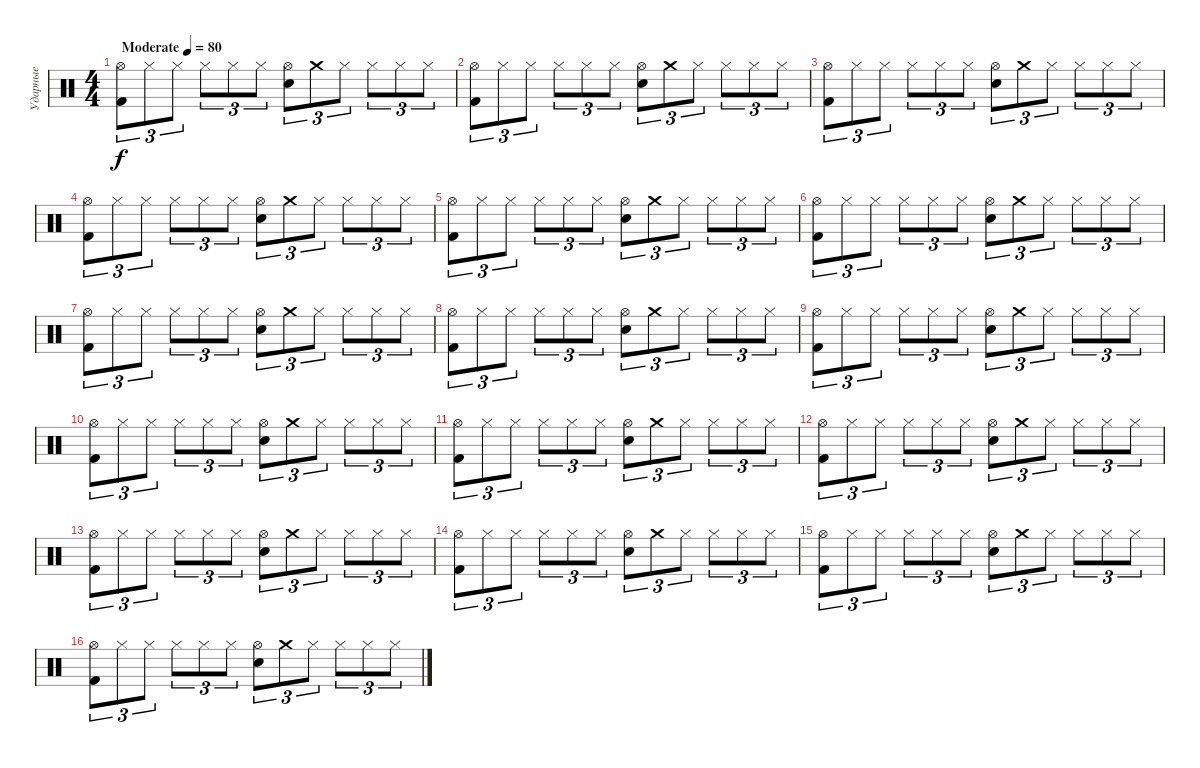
\track ("Ударные" "Ударные") {instrument percussion}
\staff {score}
\articulation defaults
\ts (4 4)
\tempo (80 "Moderate")
\clef neutral
\ks c
("Hi-Hat (open)" "Kick (hit) 2").8{tu (3 2) dy f} "Hi-Hat (closed)".8{tu (3 2)} "Hi-Hat (closed)".8{tu (3 2)} "Hi-Hat (closed)".8{tu (3 2)} "Hi-Hat (closed)".8{tu (3 2)} "Hi-Hat (closed)".8{tu (3 2)} ("Snare (hit) 2" "Hi-Hat (open)").8{tu (3 2)} "Crash medium (hit)".8{tu (3 2)} "Hi-Hat (closed)".8{tu (3 2)} "Hi-Hat (closed)".8{tu (3 2)} "Hi-Hat (closed)".8{tu (3 2)} "Hi-Hat (closed)".8{tu (3 2)} |
("Hi-Hat (open)" "Kick (hit) 2").8{tu (3 2)} "Hi-Hat (closed)".8{tu (3 2)} "Hi-Hat (closed)".8{tu (3 2)} "Hi-Hat (closed)".8{tu (3 2)} "Hi-Hat (closed)".8{tu (3 2)} "Hi-Hat (closed)".8{tu (3 2)} ("Snare (hit) 2" "Hi-Hat (open)").8{tu (3 2)} "Crash medium (hit)".8{tu (3 2)} "Hi-Hat (closed)".8{tu (3 2)} "Hi-Hat (closed)".8{tu (3 2)} "Hi-Hat (closed)".8{tu (3 2)} "Hi-Hat (closed)".8{tu (3 2)} |
("Hi-Hat (open)" "Kick (hit) 2").8{tu (3 2)} "Hi-Hat (closed)".8{tu (3 2)} "Hi-Hat (closed)".8{tu (3 2)} "Hi-Hat (closed)".8{tu (3 2)} "Hi-Hat (closed)".8{tu (3 2)} "Hi-Hat (closed)".8{tu (3 2)} ("Snare (hit) 2" "Hi-Hat (open)").8{tu (3 2)} "Crash medium (hit)".8{tu (3 2)} "Hi-Hat (closed)".8{tu (3 2)} "Hi-Hat (closed)".8{tu (3 2)} "Hi-Hat (closed)".8{tu (3 2)} "Hi-Hat (closed)".8{tu (3 2)} |
("Hi-Hat (open)" "Kick (hit) 2").8{tu (3 2)} "Hi-Hat (closed)".8{tu (3 2)} "Hi-Hat (closed)".8{tu (3 2)} "Hi-Hat (closed)".8{tu (3 2)} "Hi-Hat (closed)".8{tu (3 2)} "Hi-Hat (closed)".8{tu (3 2)} ("Snare (hit) 2" "Hi-Hat (open)").8{tu (3 2)} "Crash medium (hit)".8{tu (3 2)} "Hi-Hat (closed)".8{tu (3 2)} "Hi-Hat (closed)".8{tu (3 2)} "Hi-Hat (closed)".8{tu (3 2)} "Hi-Hat (closed)".8{tu (3 2)} |
("Hi-Hat (open)" "Kick (hit) 2").8{tu (3 2)} "Hi-Hat (closed)".8{tu (3 2)} "Hi-Hat (closed)".8{tu (3 2)} "Hi-Hat (closed)".8{tu (3 2)} "Hi-Hat (closed)".8{tu (3 2)} "Hi-Hat (closed)".8{tu (3 2)} ("Snare (hit) 2" "Hi-Hat (open)").8{tu (3 2)} "Crash medium (hit)".8{tu (3 2)} "Hi-Hat (closed)".8{tu (3 2)} "Hi-Hat (closed)".8{tu (3 2)} "Hi-Hat (closed)".8{tu (3 2)} "Hi-Hat (closed)".8{tu (3 2)} |
("Hi-Hat (open)" "Kick (hit) 2").8{tu (3 2)} "Hi-Hat (closed)".8{tu (3 2)} "Hi-Hat (closed)".8{tu (3 2)} "Hi-Hat (closed)".8{tu (3 2)} "Hi-Hat (closed)".8{tu (3 2)} "Hi-Hat (closed)".8{tu (3 2)} ("Snare (hit) 2" "Hi-Hat (open)").8{tu (3 2)} "Crash medium (hit)".8{tu (3 2)} "Hi-Hat (closed)".8{tu (3 2)} "Hi-Hat (closed)".8{tu (3 2)} "Hi-Hat (closed)".8{tu (3 2)} "Hi-Hat (closed)".8{tu (3 2)} |
("Hi-Hat (open)" "Kick (hit) 2").8{tu (3 2)} "Hi-Hat (closed)".8{tu (3 2)} "Hi-Hat (closed)".8{tu (3 2)} "Hi-Hat (closed)".8{tu (3 2)} "Hi-Hat (closed)".8{tu (3 2)} "Hi-Hat (closed)".8{tu (3 2)} ("Snare (hit) 2" "Hi-Hat (open)").8{tu (3 2)} "Crash medium (hit)".8{tu (3 2)} "Hi-Hat (closed)".8{tu (3 2)} "Hi-Hat (closed)".8{tu (3 2)} "Hi-Hat (closed)".8{tu (3 2)} "Hi-Hat (closed)".8{tu (3 2)} |
("Hi-Hat (open)" "Kick (hit) 2").8{tu (3 2)} "Hi-Hat (closed)".8{tu (3 2)} "Hi-Hat (closed)".8{tu (3 2)} "Hi-Hat (closed)".8{tu (3 2)} "Hi-Hat (closed)".8{tu (3 2)} "Hi-Hat (closed)".8{tu (3 2)} ("Snare (hit) 2" "Hi-Hat (open)").8{tu (3 2)} "Crash medium (hit)".8{tu (3 2)} "Hi-Hat (closed)".8{tu (3 2)} "Hi-Hat (closed)".8{tu (3 2)} "Hi-Hat (closed)".8{tu (3 2)} "Hi-Hat (closed)".8{tu (3 2)} |
("Hi-Hat (open)" "Kick (hit) 2").8{tu (3 2)} "Hi-Hat (closed)".8{tu (3 2)} "Hi-Hat (closed)".8{tu (3 2)} "Hi-Hat (closed)".8{tu (3 2)} "Hi-Hat (closed)".8{tu (3 2)} "Hi-Hat (closed)".8{tu (3 2)} ("Snare (hit) 2" "Hi-Hat (open)").8{tu (3 2)} "Crash medium (hit)".8{tu (3 2)} "Hi-Hat (closed)".8{tu (3 2)} "Hi-Hat (closed)".8{tu (3 2)} "Hi-Hat (closed)".8{tu (3 2)} "Hi-Hat (closed)".8{tu (3 2)} |
("Hi-Hat (open)" "Kick (hit) 2").8{tu (3 2)} "Hi-Hat (closed)".8{tu (3 2)} "Hi-Hat (closed)".8{tu (3 2)} "Hi-Hat (closed)".8{tu (3 2)} "Hi-Hat (closed)".8{tu (3 2)} "Hi-Hat (closed)".8{tu (3 2)} ("Snare (hit) 2" "Hi-Hat (open)").8{tu (3 2)} "Crash medium (hit)".8{tu (3 2)} "Hi-Hat (closed)".8{tu (3 2)} "Hi-Hat (closed)".8{tu (3 2)} "Hi-Hat (closed)".8{tu (3 2)} "Hi-Hat (closed)".8{tu (3 2)} |
("Hi-Hat (open)" "Kick (hit) 2").8{tu (3 2)} "Hi-Hat (closed)".8{tu (3 2)} "Hi-Hat (closed)".8{tu (3 2)} "Hi-Hat (closed)".8{tu (3 2)} "Hi-Hat (closed)".8{tu (3 2)} "Hi-Hat (closed)".8{tu (3 2)} ("Snare (hit) 2" "Hi-Hat (open)").8{tu (3 2)} "Crash medium (hit)".8{tu (3 2)} "Hi-Hat (closed)".8{tu (3 2)} "Hi-Hat (closed)".8{tu (3 2)} "Hi-Hat (closed)".8{tu (3 2)} "Hi-Hat (closed)".8{tu (3 2)} |
("Hi-Hat (open)" "Kick (hit) 2").8{tu (3 2)} "Hi-Hat (closed)".8{tu (3 2)} "Hi-Hat (closed)".8{tu (3 2)} "Hi-Hat (closed)".8{tu (3 2)} "Hi-Hat (closed)".8{tu (3 2)} "Hi-Hat (closed)".8{tu (3 2)} ("Snare (hit) 2" "Hi-Hat (open)").8{tu (3 2)} "Crash medium (hit)".8{tu (3 2)} "Hi-Hat (closed)".8{tu (3 2)} "Hi-Hat (closed)".8{tu (3 2)} "Hi-Hat (closed)".8{tu (3 2)} "Hi-Hat (closed)".8{tu (3 2)} |
("Hi-Hat (open)" "Kick (hit) 2").8{tu (3 2)} "Hi-Hat (closed)".8{tu (3 2)} "Hi-Hat (closed)".8{tu (3 2)} "Hi-Hat (closed)".8{tu (3 2)} "Hi-Hat (closed)".8{tu (3 2)} "Hi-Hat (closed)".8{tu (3 2)} ("Snare (hit) 2" "Hi-Hat (open)").8{tu (3 2)} "Crash medium (hit)".8{tu (3 2)} "Hi-Hat (closed)".8{tu (3 2)} "Hi-Hat (closed)".8{tu (3 2)} "Hi-Hat (closed)".8{tu (3 2)} "Hi-Hat (closed)".8{tu (3 2)} |
("Hi-Hat (open)" "Kick (hit) 2").8{tu (3 2)} "Hi-Hat (closed)".8{tu (3 2)} "Hi-Hat (closed)".8{tu (3 2)} "Hi-Hat (closed)".8{tu (3 2)} "Hi-Hat (closed)".8{tu (3 2)} "Hi-Hat (closed)".8{tu (3 2)} ("Snare (hit) 2" "Hi-Hat (open)").8{tu (3 2)} "Crash medium (hit)".8{tu (3 2)} "Hi-Hat (closed)".8{tu (3 2)} "Hi-Hat (closed)".8{tu (3 2)} "Hi-Hat (closed)".8{tu (3 2)} "Hi-Hat (closed)".8{tu (3 2)} |
("Hi-Hat (open)" "Kick (hit) 2").8{tu (3 2)} "Hi-Hat (closed)".8{tu (3 2)} "Hi-Hat (closed)".8{tu (3 2)} "Hi-Hat (closed)".8{tu (3 2)} "Hi-Hat (closed)".8{tu (3 2)} "Hi-Hat (closed)".8{tu (3 2)} ("Snare (hit) 2" "Hi-Hat (open)").8{tu (3 2)} "Crash medium (hit)".8{tu (3 2)} "Hi-Hat (closed)".8{tu (3 2)} "Hi-Hat (closed)".8{tu (3 2)} "Hi-Hat (closed)".8{tu (3 2)} "Hi-Hat (closed)".8{tu (3 2)} |
("Hi-Hat (open)" "Kick (hit) 2").8{tu (3 2)} "Hi-Hat (closed)".8{tu (3 2)} "Hi-Hat (closed)".8{tu (3 2)} "Hi-Hat (closed)".8{tu (3 2)} "Hi-Hat (closed)".8{tu (3 2)} "Hi-Hat (closed)".8{tu (3 2)} ("Snare (hit) 2" "Hi-Hat (open)").8{tu (3 2)} "Crash medium (hit)".8{tu (3 2)} "Hi-Hat (closed)".8{tu (3 2)} "Hi-Hat (closed)".8{tu (3 2)} "Hi-Hat (closed)".8{tu (3 2)} "Hi-Hat (closed)".8{tu (3 2)}
